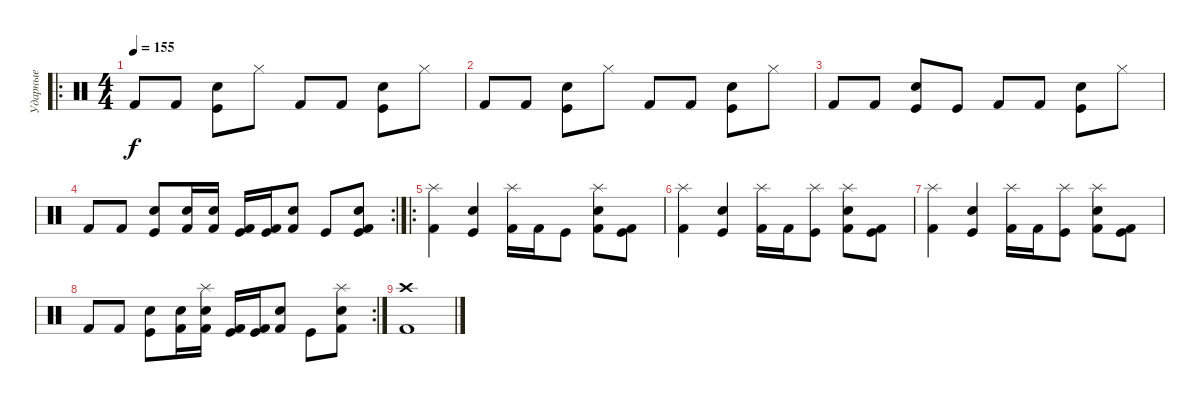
\track ("Ударные" "Ударные") {instrument percussion}
\staff {score}
\articulation defaults
\ro
\ts (4 4)
\tempo 155
\clef neutral
\ks c "Kick (hit) 2".8{dy f} "Kick (hit) 2".8
("Kick (hit)" "Electric Snare (hit)").8 "Hi-Hat (closed)".8 "Kick (hit) 2".8 "Kick (hit) 2".8 ("Kick (hit)" "Electric Snare (hit)").8 "Hi-Hat (closed)".8 |
"Kick (hit) 2".8 "Kick (hit) 2".8 ("Kick (hit)" "Electric Snare (hit)").8 "Hi-Hat (closed)".8 "Kick (hit) 2".8 "Kick (hit) 2".8 ("Kick (hit)" "Electric Snare (hit)").8 "Hi-Hat (closed)".8 |
"Kick (hit) 2".8 "Kick (hit) 2".8 ("Kick (hit)" "Electric Snare (hit)").8 "Kick (hit)".8 "Kick (hit) 2".8 "Kick (hit) 2".8 ("Kick (hit)" "Electric Snare (hit)").8 "Hi-Hat (closed)".8 |
\rc 2 "Kick (hit) 2".8 "Kick (hit) 2".8
("Kick (hit)" "Electric Snare (hit)").8 ("Electric Snare (hit)" "Kick (hit) 2").16 ("Electric Snare (hit)" "Kick (hit) 2").16 ("Kick (hit)" "Kick (hit) 2").16 ("Kick (hit)" "Kick (hit) 2").16 ("Electric Snare (hit)" "Kick (hit) 2").8 "Kick (hit)".8 ("Kick (hit)" "Electric Snare (hit)" "Kick (hit) 2").8 |
\ro
("Splash (hit)" "Kick (hit) 2").4 ("Kick (hit)" "Electric Snare (hit)").4 ("Splash (hit)" "Kick (hit) 2").16 "Kick (hit) 2".16 "Kick (hit)".8 ("Splash (hit)" "Electric Snare (hit)" "Kick (hit) 2").8 ("Kick (hit)" "Kick (hit) 2").8 |
("Splash (hit)" "Kick (hit) 2").4 ("Kick (hit)" "Electric Snare (hit)").4 ("Splash (hit)" "Kick (hit) 2").16 "Kick (hit) 2".16 ("Splash (hit)" "Kick (hit)").8 ("Splash (hit)" "Electric Snare (hit)" "Kick (hit) 2").8 ("Kick (hit)" "Kick (hit) 2").8 |
("Splash (hit)" "Kick (hit) 2").4 ("Kick (hit)" "Electric Snare (hit)").4 ("Splash (hit)" "Kick (hit) 2").16 "Kick (hit) 2".16 ("Splash (hit)" "Kick (hit)").8 ("Splash (hit)" "Electric Snare (hit)" "Kick (hit) 2").8 ("Kick (hit)" "Kick (hit) 2").8 |
\rc 2 "Kick (hit) 2".8 "Kick (hit) 2".8
("Kick (hit)" "Electric Snare (hit)").8 ("Electric Snare (hit)" "Kick (hit) 2").16 ("Splash (hit)" "Electric Snare (hit)" "Kick (hit) 2").16 ("Kick (hit)" "Kick (hit) 2").16 ("Kick (hit)" "Kick (hit) 2").16 ("Electric Snare (hit)" "Kick (hit) 2").8 "Kick (hit)".8 ("Splash (hit)" "Electric Snare (hit)" "Kick (hit) 2").8 |
("Crash high (hit)" "Kick (hit) 2").1
